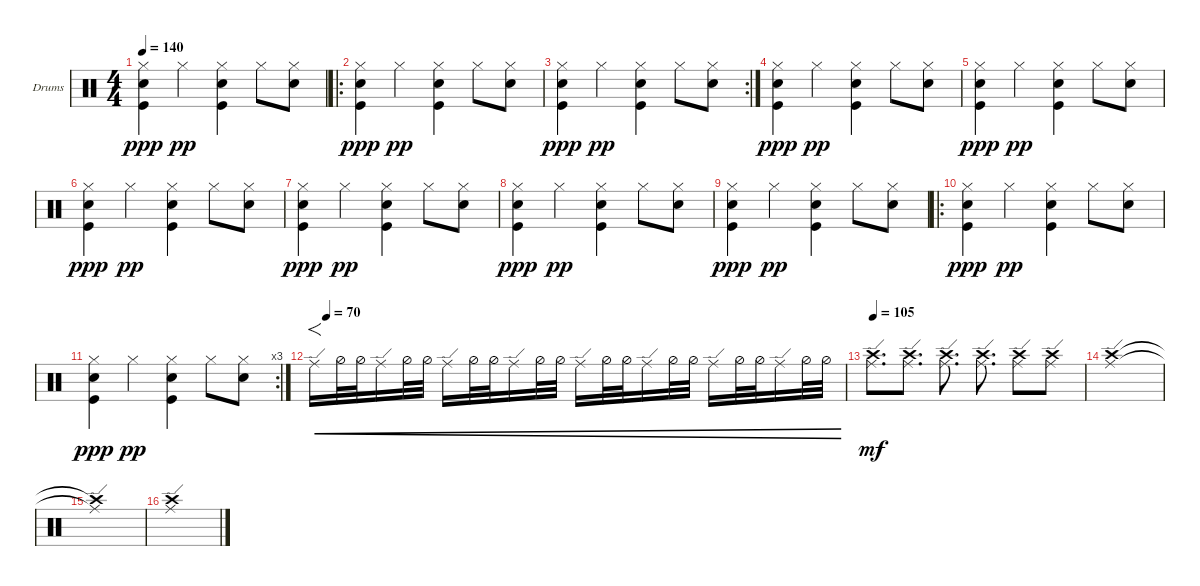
\defaultSystemsLayout 4
\bracketExtendMode groupsimilarinstruments
\firstSystemTrackNameOrientation horizontal
\otherSystemsTrackNameOrientation horizontal
\track ("Drums" "Drums") {instrument percussion}
\staff {score}
\articulation defaults
\ts (4 4)
\tempo 140
\clef neutral
\ks c
("Kick (hit)" "Snare (hit) 2" "Hi-Hat (closed)").4{dy ppp} "Hi-Hat (closed)".4{dy pp} ("Snare (hit) 2" "Hi-Hat (closed)" "Kick (hit)").4 "Hi-Hat (closed)".8 ("Hi-Hat (closed)" "Snare (hit) 2").8 |
\ro
("Kick (hit)" "Snare (hit) 2" "Hi-Hat (closed)").4{dy ppp} "Hi-Hat (closed)".4{dy pp} ("Snare (hit) 2" "Hi-Hat (closed)" "Kick (hit)").4 "Hi-Hat (closed)".8 ("Hi-Hat (closed)" "Snare (hit) 2").8 |
\rc 2
("Kick (hit)" "Snare (hit) 2" "Hi-Hat (closed)").4{dy ppp} "Hi-Hat (closed)".4{dy pp} ("Snare (hit) 2" "Hi-Hat (closed)" "Kick (hit)").4 "Hi-Hat (closed)".8 ("Hi-Hat (closed)" "Snare (hit) 2").8 |
("Kick (hit)" "Snare (hit) 2" "Hi-Hat (closed)").4{dy ppp} "Hi-Hat (closed)".4{dy pp} ("Snare (hit) 2" "Hi-Hat (closed)" "Kick (hit)").4 "Hi-Hat (closed)".8 ("Hi-Hat (closed)" "Snare (hit) 2").8 |
("Kick (hit)" "Snare (hit) 2" "Hi-Hat (closed)").4{dy ppp} "Hi-Hat (closed)".4{dy pp} ("Snare (hit) 2" "Hi-Hat (closed)" "Kick (hit)").4 "Hi-Hat (closed)".8 ("Hi-Hat (closed)" "Snare (hit) 2").8 |
("Kick (hit)" "Snare (hit) 2" "Hi-Hat (closed)").4{dy ppp} "Hi-Hat (closed)".4{dy pp} ("Snare (hit) 2" "Hi-Hat (closed)" "Kick (hit)").4 "Hi-Hat (closed)".8 ("Hi-Hat (closed)" "Snare (hit) 2").8 |
("Kick (hit)" "Snare (hit) 2" "Hi-Hat (closed)").4{dy ppp} "Hi-Hat (closed)".4{dy pp} ("Snare (hit) 2" "Hi-Hat (closed)" "Kick (hit)").4 "Hi-Hat (closed)".8 ("Hi-Hat (closed)" "Snare (hit) 2").8 |
("Kick (hit)" "Snare (hit) 2" "Hi-Hat (closed)").4{dy ppp} "Hi-Hat (closed)".4{dy pp} ("Snare (hit) 2" "Hi-Hat (closed)" "Kick (hit)").4 "Hi-Hat (closed)".8 ("Hi-Hat (closed)" "Snare (hit) 2").8 |
("Kick (hit)" "Snare (hit) 2" "Hi-Hat (closed)").4{dy ppp} "Hi-Hat (closed)".4{dy pp} ("Snare (hit) 2" "Hi-Hat (closed)" "Kick (hit)").4 "Hi-Hat (closed)".8 ("Hi-Hat (closed)" "Snare (hit) 2").8 |
\ro
("Kick (hit)" "Snare (hit) 2" "Hi-Hat (closed)").4{dy ppp} "Hi-Hat (closed)".4{dy pp} ("Snare (hit) 2" "Hi-Hat (closed)" "Kick (hit)").4 "Hi-Hat (closed)".8 ("Hi-Hat (closed)" "Snare (hit) 2").8 |
\rc 3
("Kick (hit)" "Snare (hit) 2" "Hi-Hat (closed)").4{dy ppp} "Hi-Hat (closed)".4{dy pp} ("Snare (hit) 2" "Hi-Hat (closed)" "Kick (hit)").4 "Hi-Hat (closed)".8 ("Hi-Hat (closed)" "Snare (hit) 2").8 |
\tempo (70 0.025)
"Ride (edge)".16{f cre} "Hi-Hat (half)".32{cre} "Hi-Hat (half)".32{cre} "Ride (edge)".16{cre} "Hi-Hat (half)".32{cre} "Hi-Hat (half)".32{cre} "Ride (edge)".16{cre} "Hi-Hat (half)".32{cre} "Hi-Hat (half)".32{cre} "Ride (edge)".16{cre} "Hi-Hat (half)".32{cre} "Hi-Hat (half)".32{cre} "Ride (edge)".16{cre} "Hi-Hat (half)".32{cre} "Hi-Hat (half)".32{cre} "Ride (edge)".16{cre} "Hi-Hat (half)".32{cre} "Hi-Hat (half)".32{cre} "Ride (edge)".16{cre} "Hi-Hat (half)".32{cre} "Hi-Hat (half)".32{cre} "Ride (edge)".16{cre} "Hi-Hat (half)".32{cre} "Hi-Hat (half)".32{cre} |
\tempo (105 0.00625)
("Ride (edge)" "Crash high (hit)").8{d dy mf} ("Ride (edge)" "Crash high (hit)").8{d} ("Ride (edge)" "Crash high (hit)").8{d} ("Ride (edge)" "Crash high (hit)").8{d} ("Ride (edge)" "Crash high (hit)").8 ("Ride (edge)" "Crash high (hit)").8 |
("Ride (edge)" "Crash high (hit)").1 |
("Ride (edge)"{t} "Crash high (hit)"{t}).1 |
\scale
0.505276 ("Ride (edge)" "Crash high (hit)").1
